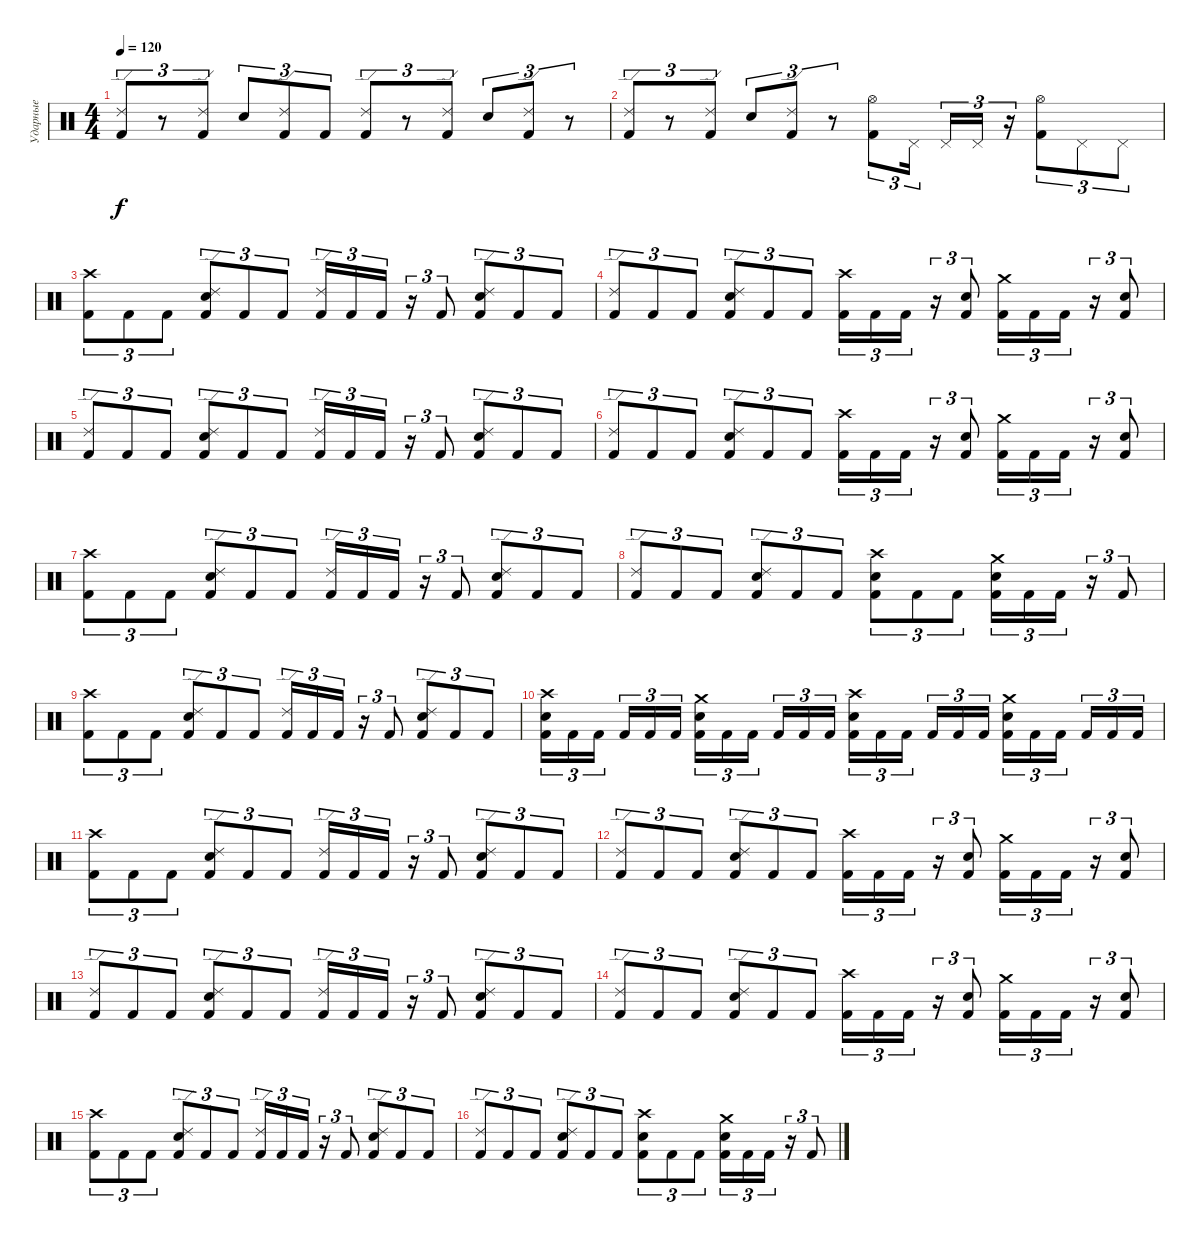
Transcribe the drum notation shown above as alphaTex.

\track ("Ударные" "Ударные") {instrument percussion}
\staff {score}
\articulation defaults
\ts (4 4)
\tempo 120
\clef neutral
\ks c
("Kick (hit) 2" "Ride (edge) 2").8{tu (3 2) dy f} r.8{tu (3 2)} ("Kick (hit) 2" "Ride (edge) 2").8{tu (3 2)} "Snare (hit) 2".8{tu (3 2)} ("Kick (hit) 2" "Ride (edge) 2").8{tu (3 2)} "Kick (hit) 2".8{tu (3 2)} ("Kick (hit) 2" "Ride (edge) 2").8{tu (3 2)} r.8{tu (3 2)} ("Kick (hit) 2" "Ride (edge) 2").8{tu (3 2)} "Snare (hit) 2".8{tu (3 2)} ("Kick (hit) 2" "Ride (edge) 2").8{tu (3 2)} r.8{tu (3 2)} |
("Kick (hit) 2" "Ride (edge) 2").8{tu (3 2)} r.8{tu (3 2)} ("Kick (hit) 2" "Ride (edge) 2").8{tu (3 2)} "Snare (hit) 2".8{tu (3 2)} ("Kick (hit) 2" "Ride (edge) 2").8{tu (3 2)} r.8{tu (3 2)} ("Kick (hit) 2" "Hi-Hat (open)").8{tu (3 2)} "Pedal Hi-Hat (hit)".16{tu (3 2)} "Pedal Hi-Hat (hit)".16{tu (3 2)} "Pedal Hi-Hat (hit)".16{tu (3 2)} r.16{tu (3 2)} ("Kick (hit) 2" "Hi-Hat (open)").8{tu (3 2)} "Pedal Hi-Hat (hit)".8{tu (3 2)} "Pedal Hi-Hat (hit)".8{tu (3 2)} |
("Kick (hit) 2" "Crash high (hit)").8{tu (3 2)} "Kick (hit) 2".8{tu (3 2)} "Kick (hit) 2".8{tu (3 2)} ("Kick (hit) 2" "Snare (hit) 2" "Ride (edge) 2").8{tu (3 2)} "Kick (hit) 2".8{tu (3 2)} "Kick (hit) 2".8{tu (3 2)} ("Kick (hit) 2" "Ride (edge) 2").16{tu (3 2)} "Kick (hit) 2".16{tu (3 2)} "Kick (hit) 2".16{tu (3 2)} r.16{tu (3 2)} "Kick (hit) 2".8{tu (3 2)} ("Kick (hit) 2" "Snare (hit) 2" "Ride (edge) 2").8{tu (3 2)} "Kick (hit) 2".8{tu (3 2)} "Kick (hit) 2".8{tu (3 2)} |
("Kick (hit) 2" "Ride (edge) 2").8{tu (3 2)} "Kick (hit) 2".8{tu (3 2)} "Kick (hit) 2".8{tu (3 2)} ("Kick (hit) 2" "Snare (hit) 2" "Ride (edge) 2").8{tu (3 2)} "Kick (hit) 2".8{tu (3 2)} "Kick (hit) 2".8{tu (3 2)} ("Kick (hit) 2" "Crash high (hit)").16{tu (3 2)} "Kick (hit) 2".16{tu (3 2)} "Kick (hit) 2".16{tu (3 2)} r.16{tu (3 2)} ("Kick (hit) 2" "Snare (hit) 2").8{tu (3 2)} ("Kick (hit) 2" "Crash medium (hit)").16{tu (3 2)} "Kick (hit) 2".16{tu (3 2)} "Kick (hit) 2".16{tu (3 2)} r.16{tu (3 2)} ("Kick (hit) 2" "Snare (hit) 2").8{tu (3 2)} |
("Kick (hit) 2" "Ride (edge) 2").8{tu (3 2)} "Kick (hit) 2".8{tu (3 2)} "Kick (hit) 2".8{tu (3 2)} ("Kick (hit) 2" "Snare (hit) 2" "Ride (edge) 2").8{tu (3 2)} "Kick (hit) 2".8{tu (3 2)} "Kick (hit) 2".8{tu (3 2)} ("Kick (hit) 2" "Ride (edge) 2").16{tu (3 2)} "Kick (hit) 2".16{tu (3 2)} "Kick (hit) 2".16{tu (3 2)} r.16{tu (3 2)} "Kick (hit) 2".8{tu (3 2)} ("Kick (hit) 2" "Snare (hit) 2" "Ride (edge) 2").8{tu (3 2)} "Kick (hit) 2".8{tu (3 2)} "Kick (hit) 2".8{tu (3 2)} |
("Kick (hit) 2" "Ride (edge) 2").8{tu (3 2)} "Kick (hit) 2".8{tu (3 2)} "Kick (hit) 2".8{tu (3 2)} ("Kick (hit) 2" "Snare (hit) 2" "Ride (edge) 2").8{tu (3 2)} "Kick (hit) 2".8{tu (3 2)} "Kick (hit) 2".8{tu (3 2)} ("Kick (hit) 2" "Crash high (hit)").16{tu (3 2)} "Kick (hit) 2".16{tu (3 2)} "Kick (hit) 2".16{tu (3 2)} r.16{tu (3 2)} ("Kick (hit) 2" "Snare (hit) 2").8{tu (3 2)} ("Kick (hit) 2" "Crash medium (hit)").16{tu (3 2)} "Kick (hit) 2".16{tu (3 2)} "Kick (hit) 2".16{tu (3 2)} r.16{tu (3 2)} ("Kick (hit) 2" "Snare (hit) 2").8{tu (3 2)} |
("Kick (hit) 2" "Crash high (hit)").8{tu (3 2)} "Kick (hit) 2".8{tu (3 2)} "Kick (hit) 2".8{tu (3 2)} ("Kick (hit) 2" "Snare (hit) 2" "Ride (edge) 2").8{tu (3 2)} "Kick (hit) 2".8{tu (3 2)} "Kick (hit) 2".8{tu (3 2)} ("Kick (hit) 2" "Ride (edge) 2").16{tu (3 2)} "Kick (hit) 2".16{tu (3 2)} "Kick (hit) 2".16{tu (3 2)} r.16{tu (3 2)} "Kick (hit) 2".8{tu (3 2)} ("Kick (hit) 2" "Snare (hit) 2" "Ride (edge) 2").8{tu (3 2)} "Kick (hit) 2".8{tu (3 2)} "Kick (hit) 2".8{tu (3 2)} |
("Kick (hit) 2" "Ride (edge) 2").8{tu (3 2)} "Kick (hit) 2".8{tu (3 2)} "Kick (hit) 2".8{tu (3 2)} ("Kick (hit) 2" "Snare (hit) 2" "Ride (edge) 2").8{tu (3 2)} "Kick (hit) 2".8{tu (3 2)} "Kick (hit) 2".8{tu (3 2)} ("Kick (hit) 2" "Snare (hit) 2" "Crash high (hit)").8{tu (3 2)} "Kick (hit) 2".8{tu (3 2)} "Kick (hit) 2".8{tu (3 2)} ("Kick (hit) 2" "Snare (hit) 2" "Crash medium (hit)").16{tu (3 2)} "Kick (hit) 2".16{tu (3 2)} "Kick (hit) 2".16{tu (3 2)} r.16{tu (3 2)} "Kick (hit) 2".8{tu (3 2)} |
("Kick (hit) 2" "Crash high (hit)").8{tu (3 2)} "Kick (hit) 2".8{tu (3 2)} "Kick (hit) 2".8{tu (3 2)} ("Kick (hit) 2" "Snare (hit) 2" "Ride (edge) 2").8{tu (3 2)} "Kick (hit) 2".8{tu (3 2)} "Kick (hit) 2".8{tu (3 2)} ("Kick (hit) 2" "Ride (edge) 2").16{tu (3 2)} "Kick (hit) 2".16{tu (3 2)} "Kick (hit) 2".16{tu (3 2)} r.16{tu (3 2)} "Kick (hit) 2".8{tu (3 2)} ("Kick (hit) 2" "Snare (hit) 2" "Ride (edge) 2").8{tu (3 2)} "Kick (hit) 2".8{tu (3 2)} "Kick (hit) 2".8{tu (3 2)} |
("Kick (hit) 2" "Snare (hit) 2" "Crash high (hit)").16{tu (3 2)} "Kick (hit) 2".16{tu (3 2)} "Kick (hit) 2".16{tu (3 2)} "Kick (hit) 2".16{tu (3 2)} "Kick (hit) 2".16{tu (3 2)} "Kick (hit) 2".16{tu (3 2)} ("Kick (hit) 2" "Snare (hit) 2" "Crash medium (hit)").16{tu (3 2)} "Kick (hit) 2".16{tu (3 2)} "Kick (hit) 2".16{tu (3 2)} "Kick (hit) 2".16{tu (3 2)} "Kick (hit) 2".16{tu (3 2)} "Kick (hit) 2".16{tu (3 2)} ("Kick (hit) 2" "Snare (hit) 2" "Crash high (hit)").16{tu (3 2)} "Kick (hit) 2".16{tu (3 2)} "Kick (hit) 2".16{tu (3 2)} "Kick (hit) 2".16{tu (3 2)} "Kick (hit) 2".16{tu (3 2)} "Kick (hit) 2".16{tu (3 2)} ("Kick (hit) 2" "Snare (hit) 2" "Crash medium (hit)").16{tu (3 2)} "Kick (hit) 2".16{tu (3 2)} "Kick (hit) 2".16{tu (3 2)} "Kick (hit) 2".16{tu (3 2)} "Kick (hit) 2".16{tu (3 2)} "Kick (hit) 2".16{tu (3 2)} |
("Kick (hit) 2" "Crash high (hit)").8{tu (3 2)} "Kick (hit) 2".8{tu (3 2)} "Kick (hit) 2".8{tu (3 2)} ("Kick (hit) 2" "Snare (hit) 2" "Ride (edge) 2").8{tu (3 2)} "Kick (hit) 2".8{tu (3 2)} "Kick (hit) 2".8{tu (3 2)} ("Kick (hit) 2" "Ride (edge) 2").16{tu (3 2)} "Kick (hit) 2".16{tu (3 2)} "Kick (hit) 2".16{tu (3 2)} r.16{tu (3 2)} "Kick (hit) 2".8{tu (3 2)} ("Kick (hit) 2" "Snare (hit) 2" "Ride (edge) 2").8{tu (3 2)} "Kick (hit) 2".8{tu (3 2)} "Kick (hit) 2".8{tu (3 2)} |
("Kick (hit) 2" "Ride (edge) 2").8{tu (3 2)} "Kick (hit) 2".8{tu (3 2)} "Kick (hit) 2".8{tu (3 2)} ("Kick (hit) 2" "Snare (hit) 2" "Ride (edge) 2").8{tu (3 2)} "Kick (hit) 2".8{tu (3 2)} "Kick (hit) 2".8{tu (3 2)} ("Kick (hit) 2" "Crash high (hit)").16{tu (3 2)} "Kick (hit) 2".16{tu (3 2)} "Kick (hit) 2".16{tu (3 2)} r.16{tu (3 2)} ("Kick (hit) 2" "Snare (hit) 2").8{tu (3 2)} ("Kick (hit) 2" "Crash medium (hit)").16{tu (3 2)} "Kick (hit) 2".16{tu (3 2)} "Kick (hit) 2".16{tu (3 2)} r.16{tu (3 2)} ("Kick (hit) 2" "Snare (hit) 2").8{tu (3 2)} |
("Kick (hit) 2" "Ride (edge) 2").8{tu (3 2)} "Kick (hit) 2".8{tu (3 2)} "Kick (hit) 2".8{tu (3 2)} ("Kick (hit) 2" "Snare (hit) 2" "Ride (edge) 2").8{tu (3 2)} "Kick (hit) 2".8{tu (3 2)} "Kick (hit) 2".8{tu (3 2)} ("Kick (hit) 2" "Ride (edge) 2").16{tu (3 2)} "Kick (hit) 2".16{tu (3 2)} "Kick (hit) 2".16{tu (3 2)} r.16{tu (3 2)} "Kick (hit) 2".8{tu (3 2)} ("Kick (hit) 2" "Snare (hit) 2" "Ride (edge) 2").8{tu (3 2)} "Kick (hit) 2".8{tu (3 2)} "Kick (hit) 2".8{tu (3 2)} |
("Kick (hit) 2" "Ride (edge) 2").8{tu (3 2)} "Kick (hit) 2".8{tu (3 2)} "Kick (hit) 2".8{tu (3 2)} ("Kick (hit) 2" "Snare (hit) 2" "Ride (edge) 2").8{tu (3 2)} "Kick (hit) 2".8{tu (3 2)} "Kick (hit) 2".8{tu (3 2)} ("Kick (hit) 2" "Crash high (hit)").16{tu (3 2)} "Kick (hit) 2".16{tu (3 2)} "Kick (hit) 2".16{tu (3 2)} r.16{tu (3 2)} ("Kick (hit) 2" "Snare (hit) 2").8{tu (3 2)} ("Kick (hit) 2" "Crash medium (hit)").16{tu (3 2)} "Kick (hit) 2".16{tu (3 2)} "Kick (hit) 2".16{tu (3 2)} r.16{tu (3 2)} ("Kick (hit) 2" "Snare (hit) 2").8{tu (3 2)} |
("Kick (hit) 2" "Crash high (hit)").8{tu (3 2)} "Kick (hit) 2".8{tu (3 2)} "Kick (hit) 2".8{tu (3 2)} ("Kick (hit) 2" "Snare (hit) 2" "Ride (edge) 2").8{tu (3 2)} "Kick (hit) 2".8{tu (3 2)} "Kick (hit) 2".8{tu (3 2)} ("Kick (hit) 2" "Ride (edge) 2").16{tu (3 2)} "Kick (hit) 2".16{tu (3 2)} "Kick (hit) 2".16{tu (3 2)} r.16{tu (3 2)} "Kick (hit) 2".8{tu (3 2)} ("Kick (hit) 2" "Snare (hit) 2" "Ride (edge) 2").8{tu (3 2)} "Kick (hit) 2".8{tu (3 2)} "Kick (hit) 2".8{tu (3 2)} |
("Kick (hit) 2" "Ride (edge) 2").8{tu (3 2)} "Kick (hit) 2".8{tu (3 2)} "Kick (hit) 2".8{tu (3 2)} ("Kick (hit) 2" "Snare (hit) 2" "Ride (edge) 2").8{tu (3 2)} "Kick (hit) 2".8{tu (3 2)} "Kick (hit) 2".8{tu (3 2)} ("Kick (hit) 2" "Snare (hit) 2" "Crash high (hit)").8{tu (3 2)} "Kick (hit) 2".8{tu (3 2)} "Kick (hit) 2".8{tu (3 2)} ("Kick (hit) 2" "Snare (hit) 2" "Crash medium (hit)").16{tu (3 2)} "Kick (hit) 2".16{tu (3 2)} "Kick (hit) 2".16{tu (3 2)} r.16{tu (3 2)} "Kick (hit) 2".8{tu (3 2)}
